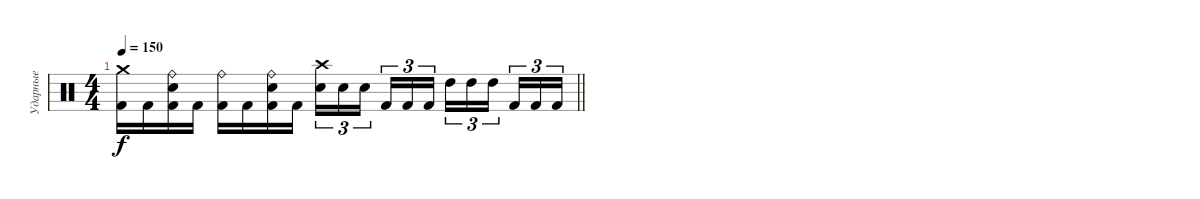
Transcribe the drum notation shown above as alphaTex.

\track ("Ударные" "Ударные") {instrument percussion}
\staff {score}
\articulation defaults
\ts (4 4)
\tempo 150
\clef neutral
\barLineRight lightlight
\ks c
("Kick (hit) 2" "Crash medium (hit)").16{dy f} "Kick (hit) 2".16 ("Kick (hit) 2" "Snare (hit) 2" "Ride (bell)").16 "Kick (hit) 2".16 ("Kick (hit) 2" "Ride (bell)").16 "Kick (hit) 2".16 ("Kick (hit) 2" "Snare (hit) 2" "Ride (bell)").16 "Kick (hit) 2".16 ("Snare (hit) 2" "Crash high (hit)").16{tu (3 2)} "Snare (hit) 2".16{tu (3 2)} "Snare (hit) 2".16{tu (3 2)} "Kick (hit) 2".16{tu (3 2)} "Kick (hit) 2".16{tu (3 2)} "Kick (hit) 2".16{tu (3 2)} "High Tom (hit)".16{tu (3 2)} "High Tom (hit)".16{tu (3 2)} "High Tom (hit)".16{tu (3 2)} "Kick (hit) 2".16{tu (3 2)} "Kick (hit) 2".16{tu (3 2)} "Kick (hit) 2".16{tu (3 2)}
